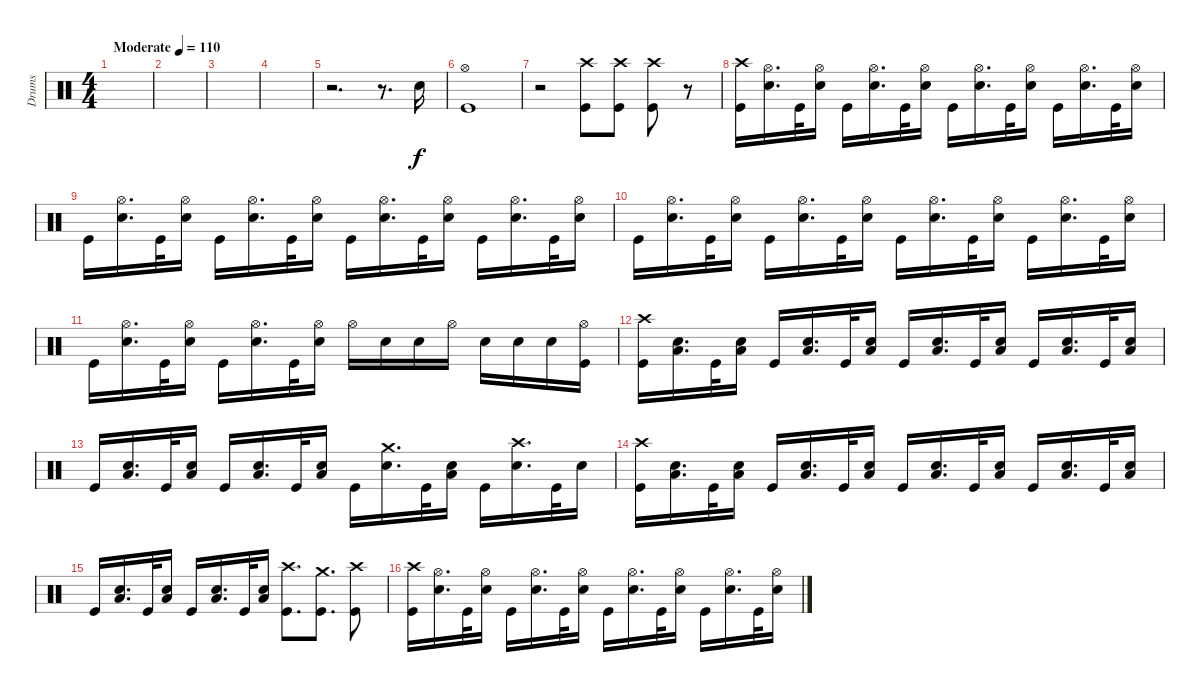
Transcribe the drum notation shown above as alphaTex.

\track ("Drums" "Drums") {instrument percussion}
\staff {score}
\articulation defaults
\ts (4 4)
\tempo (110 "Moderate")
\clef neutral
\ks c
|
|
|
|
r.2{d} r.8{d} "Snare (hit) 2".16 |
("Hi-Hat (open)" "Kick (hit)").1 |
r.2 ("Crash high (hit)" "Kick (hit)").8 ("Crash high (hit)" "Kick (hit)").8 ("Crash high (hit)" "Kick (hit)").8 r.8{volume 1} |
("Crash high (hit)" "Kick (hit)").16{volume 13} ("Hi-Hat (open)" "Snare (hit) 2").16{d} "Kick (hit)".32 ("Hi-Hat (open)" "Snare (hit) 2").16 "Kick (hit)".16 ("Hi-Hat (open)" "Snare (hit) 2").16{d} "Kick (hit)".32 ("Hi-Hat (open)" "Snare (hit) 2").16 "Kick (hit)".16 ("Hi-Hat (open)" "Snare (hit) 2").16{d} "Kick (hit)".32 ("Hi-Hat (open)" "Snare (hit) 2").16 "Kick (hit)".16 ("Hi-Hat (open)" "Snare (hit) 2").16{d} "Kick (hit)".32 ("Hi-Hat (open)" "Snare (hit) 2").16 |
"Kick (hit)".16 ("Hi-Hat (open)" "Snare (hit) 2").16{d} "Kick (hit)".32 ("Hi-Hat (open)" "Snare (hit) 2").16 "Kick (hit)".16 ("Hi-Hat (open)" "Snare (hit) 2").16{d} "Kick (hit)".32 ("Hi-Hat (open)" "Snare (hit) 2").16 "Kick (hit)".16 ("Hi-Hat (open)" "Snare (hit) 2").16{d} "Kick (hit)".32 ("Hi-Hat (open)" "Snare (hit) 2").16 "Kick (hit)".16 ("Hi-Hat (open)" "Snare (hit) 2").16{d} "Kick (hit)".32 ("Hi-Hat (open)" "Snare (hit) 2").16 |
"Kick (hit)".16 ("Hi-Hat (open)" "Snare (hit) 2").16{d} "Kick (hit)".32 ("Hi-Hat (open)" "Snare (hit) 2").16 "Kick (hit)".16 ("Hi-Hat (open)" "Snare (hit) 2").16{d} "Kick (hit)".32 ("Hi-Hat (open)" "Snare (hit) 2").16 "Kick (hit)".16 ("Hi-Hat (open)" "Snare (hit) 2").16{d} "Kick (hit)".32 ("Hi-Hat (open)" "Snare (hit) 2").16 "Kick (hit)".16 ("Hi-Hat (open)" "Snare (hit) 2").16{d} "Kick (hit)".32 ("Hi-Hat (open)" "Snare (hit) 2").16 |
"Kick (hit)".16 ("Hi-Hat (open)" "Snare (hit) 2").16{d} "Kick (hit)".32 ("Hi-Hat (open)" "Snare (hit) 2").16 "Kick (hit)".16 ("Hi-Hat (open)" "Snare (hit) 2").16{d} "Kick (hit)".32 ("Hi-Hat (open)" "Snare (hit) 2").16 "Hi-Hat (open)".16 "Snare (hit) 2".16 "Snare (hit) 2".16 "Hi-Hat (open)".16 "Snare (hit) 2".16 "Snare (hit) 2".16 "Snare (hit) 2".16 ("Hi-Hat (open)" "Kick (hit)").16 |
("Crash high (hit)" "Kick (hit)").16 ("Low Floor Tom (hit)" "Snare (hit) 2").16{d} "Kick (hit)".32 ("Low Floor Tom (hit)" "Snare (hit) 2").16 "Kick (hit)".16 ("Low Floor Tom (hit)" "Snare (hit) 2").16{d} "Kick (hit)".32 ("Low Floor Tom (hit)" "Snare (hit) 2").16 "Kick (hit)".16 ("Low Floor Tom (hit)" "Snare (hit) 2").16{d} "Kick (hit)".32 ("Low Floor Tom (hit)" "Snare (hit) 2").16 "Kick (hit)".16 ("Low Floor Tom (hit)" "Snare (hit) 2").16{d} "Kick (hit)".32 ("Low Floor Tom (hit)" "Snare (hit) 2").16 |
"Kick (hit)".16 ("Low Floor Tom (hit)" "Snare (hit) 2").16{d} "Kick (hit)".32 ("Low Floor Tom (hit)" "Snare (hit) 2").16 "Kick (hit)".16 ("Low Floor Tom (hit)" "Snare (hit) 2").16{d} "Kick (hit)".32 ("Low Floor Tom (hit)" "Snare (hit) 2").16 "Kick (hit)".16 ("Crash medium (hit)" "Snare (hit) 2").16{d} "Kick (hit)".32 ("Low Floor Tom (hit)" "Snare (hit) 2").16 "Kick (hit)".16 ("Crash high (hit)" "Snare (hit) 2").16{d} "Kick (hit)".32 "Snare (hit) 2".16 |
("Crash high (hit)" "Kick (hit)").16 ("Low Floor Tom (hit)" "Snare (hit) 2").16{d} "Kick (hit)".32 ("Low Floor Tom (hit)" "Snare (hit) 2").16 "Kick (hit)".16 ("Low Floor Tom (hit)" "Snare (hit) 2").16{d} "Kick (hit)".32 ("Low Floor Tom (hit)" "Snare (hit) 2").16 "Kick (hit)".16 ("Low Floor Tom (hit)" "Snare (hit) 2").16{d} "Kick (hit)".32 ("Low Floor Tom (hit)" "Snare (hit) 2").16 "Kick (hit)".16 ("Low Floor Tom (hit)" "Snare (hit) 2").16{d} "Kick (hit)".32 ("Low Floor Tom (hit)" "Snare (hit) 2").16 |
"Kick (hit)".16 ("Low Floor Tom (hit)" "Snare (hit) 2").16{d} "Kick (hit)".32 ("Low Floor Tom (hit)" "Snare (hit) 2").16 "Kick (hit)".16 ("Low Floor Tom (hit)" "Snare (hit) 2").16{d} "Kick (hit)".32 ("Low Floor Tom (hit)" "Snare (hit) 2").16 ("Crash high (hit)" "Kick (hit)").8{d} ("Crash medium (hit)" "Kick (hit)").8{d} ("Crash high (hit)" "Kick (hit)").8 |
("Crash high (hit)" "Kick (hit)").16 ("Hi-Hat (open)" "Snare (hit) 2").16{d} "Kick (hit)".32 ("Hi-Hat (open)" "Snare (hit) 2").16 "Kick (hit)".16 ("Hi-Hat (open)" "Snare (hit) 2").16{d} "Kick (hit)".32 ("Hi-Hat (open)" "Snare (hit) 2").16 "Kick (hit)".16 ("Hi-Hat (open)" "Snare (hit) 2").16{d} "Kick (hit)".32 ("Hi-Hat (open)" "Snare (hit) 2").16 "Kick (hit)".16 ("Hi-Hat (open)" "Snare (hit) 2").16{d} "Kick (hit)".32 ("Hi-Hat (open)" "Snare (hit) 2").16
